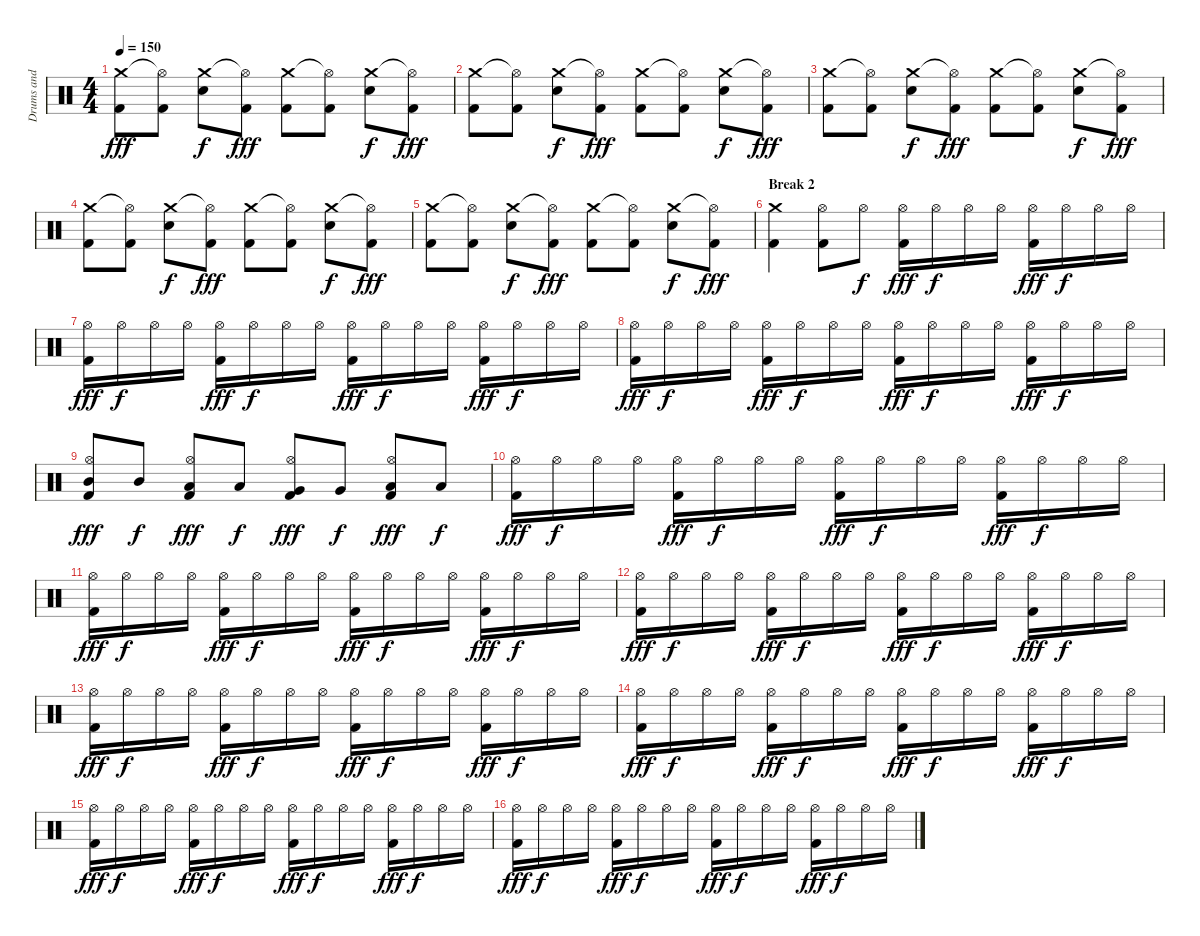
\track ("Drums and Percussion" "Drums and ") {instrument percussion}
\staff {score}
\articulation defaults
\ts (4 4)
\tempo 150
\clef neutral
\ks c
("Crash medium (hit)" "Kick (hit) 2").8{dy fff} ("Hi-Hat (open)"{t} "Kick (hit) 2").8 ("Crash medium (hit)" "Electric Snare (hit)").8{dy f} ("Hi-Hat (open)"{t} "Kick (hit) 2").8{dy fff} ("Crash medium (hit)" "Kick (hit) 2").8 ("Hi-Hat (open)"{t} "Kick (hit) 2").8 ("Crash medium (hit)" "Electric Snare (hit)").8{dy f} ("Hi-Hat (open)"{t} "Kick (hit) 2").8{dy fff} |
("Crash medium (hit)" "Kick (hit) 2").8 ("Hi-Hat (open)"{t} "Kick (hit) 2").8 ("Crash medium (hit)" "Electric Snare (hit)").8{dy f} ("Hi-Hat (open)"{t} "Kick (hit) 2").8{dy fff} ("Crash medium (hit)" "Kick (hit) 2").8 ("Hi-Hat (open)"{t} "Kick (hit) 2").8 ("Crash medium (hit)" "Electric Snare (hit)").8{dy f} ("Hi-Hat (open)"{t} "Kick (hit) 2").8{dy fff} |
("Crash medium (hit)" "Kick (hit) 2").8 ("Hi-Hat (open)"{t} "Kick (hit) 2").8 ("Crash medium (hit)" "Electric Snare (hit)").8{dy f} ("Hi-Hat (open)"{t} "Kick (hit) 2").8{dy fff} ("Crash medium (hit)" "Kick (hit) 2").8 ("Hi-Hat (open)"{t} "Kick (hit) 2").8 ("Crash medium (hit)" "Electric Snare (hit)").8{dy f} ("Hi-Hat (open)"{t} "Kick (hit) 2").8{dy fff} |
("Crash medium (hit)" "Kick (hit) 2").8 ("Hi-Hat (open)"{t} "Kick (hit) 2").8 ("Crash medium (hit)" "Electric Snare (hit)").8{dy f} ("Hi-Hat (open)"{t} "Kick (hit) 2").8{dy fff} ("Crash medium (hit)" "Kick (hit) 2").8 ("Hi-Hat (open)"{t} "Kick (hit) 2").8 ("Crash medium (hit)" "Electric Snare (hit)").8{dy f} ("Hi-Hat (open)"{t} "Kick (hit) 2").8{dy fff} |
("Crash medium (hit)" "Kick (hit) 2").8 ("Hi-Hat (open)"{t} "Kick (hit) 2").8 ("Crash medium (hit)" "Electric Snare (hit)").8{dy f} ("Hi-Hat (open)"{t} "Kick (hit) 2").8{dy fff} ("Crash medium (hit)" "Kick (hit) 2").8 ("Hi-Hat (open)"{t} "Kick (hit) 2").8 ("Crash medium (hit)" "Electric Snare (hit)").8{dy f} ("Hi-Hat (open)"{t} "Kick (hit) 2").8{dy fff} |
\section ("" "Break 2")
("Crash medium (hit)" "Kick (hit) 2").4 ("Hi-Hat (open)" "Kick (hit) 2").8 "Hi-Hat (open)".8{dy f} ("Hi-Hat (open)" "Kick (hit) 2").16{dy fff} "Hi-Hat (open)".16{dy f} "Hi-Hat (open)".16 "Hi-Hat (open)".16 ("Hi-Hat (open)" "Kick (hit) 2").16{dy fff} "Hi-Hat (open)".16{dy f} "Hi-Hat (open)".16 "Hi-Hat (open)".16 |
("Hi-Hat (open)" "Kick (hit) 2").16{dy fff} "Hi-Hat (open)".16{dy f} "Hi-Hat (open)".16 "Hi-Hat (open)".16 ("Hi-Hat (open)" "Kick (hit) 2").16{dy fff} "Hi-Hat (open)".16{dy f} "Hi-Hat (open)".16 "Hi-Hat (open)".16 ("Hi-Hat (open)" "Kick (hit) 2").16{dy fff} "Hi-Hat (open)".16{dy f} "Hi-Hat (open)".16 "Hi-Hat (open)".16 ("Hi-Hat (open)" "Kick (hit) 2").16{dy fff} "Hi-Hat (open)".16{dy f} "Hi-Hat (open)".16 "Hi-Hat (open)".16 |
("Hi-Hat (open)" "Kick (hit) 2").16{dy fff} "Hi-Hat (open)".16{dy f} "Hi-Hat (open)".16 "Hi-Hat (open)".16 ("Hi-Hat (open)" "Kick (hit) 2").16{dy fff} "Hi-Hat (open)".16{dy f} "Hi-Hat (open)".16 "Hi-Hat (open)".16 ("Hi-Hat (open)" "Kick (hit) 2").16{dy fff} "Hi-Hat (open)".16{dy f} "Hi-Hat (open)".16 "Hi-Hat (open)".16 ("Hi-Hat (open)" "Kick (hit) 2").16{dy fff} "Hi-Hat (open)".16{dy f} "Hi-Hat (open)".16 "Hi-Hat (open)".16 |
("Hi-Hat (open)" "Mid Tom (hit)" "Kick (hit) 2").8{dy fff} "Mid Tom (hit)".8{dy f} ("Hi-Hat (open)" "Low Tom (hit)" "Kick (hit) 2").8{dy fff} "Low Tom (hit)".8{dy f} ("Hi-Hat (open)" "Very Low Tom (hit)" "Kick (hit) 2").8{dy fff} "Very Low Tom (hit)".8{dy f} ("Hi-Hat (open)" "Low Floor Tom (hit)" "Kick (hit) 2").8{dy fff} "Low Floor Tom (hit)".8{dy f} |
("Hi-Hat (open)" "Kick (hit) 2").16{dy fff} "Hi-Hat (open)".16{dy f} "Hi-Hat (open)".16 "Hi-Hat (open)".16 ("Hi-Hat (open)" "Kick (hit) 2").16{dy fff} "Hi-Hat (open)".16{dy f} "Hi-Hat (open)".16 "Hi-Hat (open)".16 ("Hi-Hat (open)" "Kick (hit) 2").16{dy fff} "Hi-Hat (open)".16{dy f} "Hi-Hat (open)".16 "Hi-Hat (open)".16 ("Hi-Hat (open)" "Kick (hit) 2").16{dy fff} "Hi-Hat (open)".16{dy f} "Hi-Hat (open)".16 "Hi-Hat (open)".16 |
("Hi-Hat (open)" "Kick (hit) 2").16{dy fff} "Hi-Hat (open)".16{dy f} "Hi-Hat (open)".16 "Hi-Hat (open)".16 ("Hi-Hat (open)" "Kick (hit) 2").16{dy fff} "Hi-Hat (open)".16{dy f} "Hi-Hat (open)".16 "Hi-Hat (open)".16 ("Hi-Hat (open)" "Kick (hit) 2").16{dy fff} "Hi-Hat (open)".16{dy f} "Hi-Hat (open)".16 "Hi-Hat (open)".16 ("Hi-Hat (open)" "Kick (hit) 2").16{dy fff} "Hi-Hat (open)".16{dy f} "Hi-Hat (open)".16 "Hi-Hat (open)".16 |
("Hi-Hat (open)" "Kick (hit) 2").16{dy fff} "Hi-Hat (open)".16{dy f} "Hi-Hat (open)".16 "Hi-Hat (open)".16 ("Hi-Hat (open)" "Kick (hit) 2").16{dy fff} "Hi-Hat (open)".16{dy f} "Hi-Hat (open)".16 "Hi-Hat (open)".16 ("Hi-Hat (open)" "Kick (hit) 2").16{dy fff} "Hi-Hat (open)".16{dy f} "Hi-Hat (open)".16 "Hi-Hat (open)".16 ("Hi-Hat (open)" "Kick (hit) 2").16{dy fff} "Hi-Hat (open)".16{dy f} "Hi-Hat (open)".16 "Hi-Hat (open)".16 |
("Hi-Hat (open)" "Kick (hit) 2").16{dy fff} "Hi-Hat (open)".16{dy f} "Hi-Hat (open)".16 "Hi-Hat (open)".16 ("Hi-Hat (open)" "Kick (hit) 2").16{dy fff} "Hi-Hat (open)".16{dy f} "Hi-Hat (open)".16 "Hi-Hat (open)".16 ("Hi-Hat (open)" "Kick (hit) 2").16{dy fff} "Hi-Hat (open)".16{dy f} "Hi-Hat (open)".16 "Hi-Hat (open)".16 ("Hi-Hat (open)" "Kick (hit) 2").16{dy fff} "Hi-Hat (open)".16{dy f} "Hi-Hat (open)".16 "Hi-Hat (open)".16 |
("Hi-Hat (open)" "Kick (hit) 2").16{dy fff} "Hi-Hat (open)".16{dy f} "Hi-Hat (open)".16 "Hi-Hat (open)".16 ("Hi-Hat (open)" "Kick (hit) 2").16{dy fff} "Hi-Hat (open)".16{dy f} "Hi-Hat (open)".16 "Hi-Hat (open)".16 ("Hi-Hat (open)" "Kick (hit) 2").16{dy fff} "Hi-Hat (open)".16{dy f} "Hi-Hat (open)".16 "Hi-Hat (open)".16 ("Hi-Hat (open)" "Kick (hit) 2").16{dy fff} "Hi-Hat (open)".16{dy f} "Hi-Hat (open)".16 "Hi-Hat (open)".16 |
("Hi-Hat (open)" "Kick (hit) 2").16{dy fff} "Hi-Hat (open)".16{dy f} "Hi-Hat (open)".16 "Hi-Hat (open)".16 ("Hi-Hat (open)" "Kick (hit) 2").16{dy fff} "Hi-Hat (open)".16{dy f} "Hi-Hat (open)".16 "Hi-Hat (open)".16 ("Hi-Hat (open)" "Kick (hit) 2").16{dy fff} "Hi-Hat (open)".16{dy f} "Hi-Hat (open)".16 "Hi-Hat (open)".16 ("Hi-Hat (open)" "Kick (hit) 2").16{dy fff} "Hi-Hat (open)".16{dy f} "Hi-Hat (open)".16 "Hi-Hat (open)".16 |
("Hi-Hat (open)" "Kick (hit) 2").16{dy fff} "Hi-Hat (open)".16{dy f} "Hi-Hat (open)".16 "Hi-Hat (open)".16 ("Hi-Hat (open)" "Kick (hit) 2").16{dy fff} "Hi-Hat (open)".16{dy f} "Hi-Hat (open)".16 "Hi-Hat (open)".16 ("Hi-Hat (open)" "Kick (hit) 2").16{dy fff} "Hi-Hat (open)".16{dy f} "Hi-Hat (open)".16 "Hi-Hat (open)".16 ("Hi-Hat (open)" "Kick (hit) 2").16{dy fff} "Hi-Hat (open)".16{dy f} "Hi-Hat (open)".16 "Hi-Hat (open)".16
